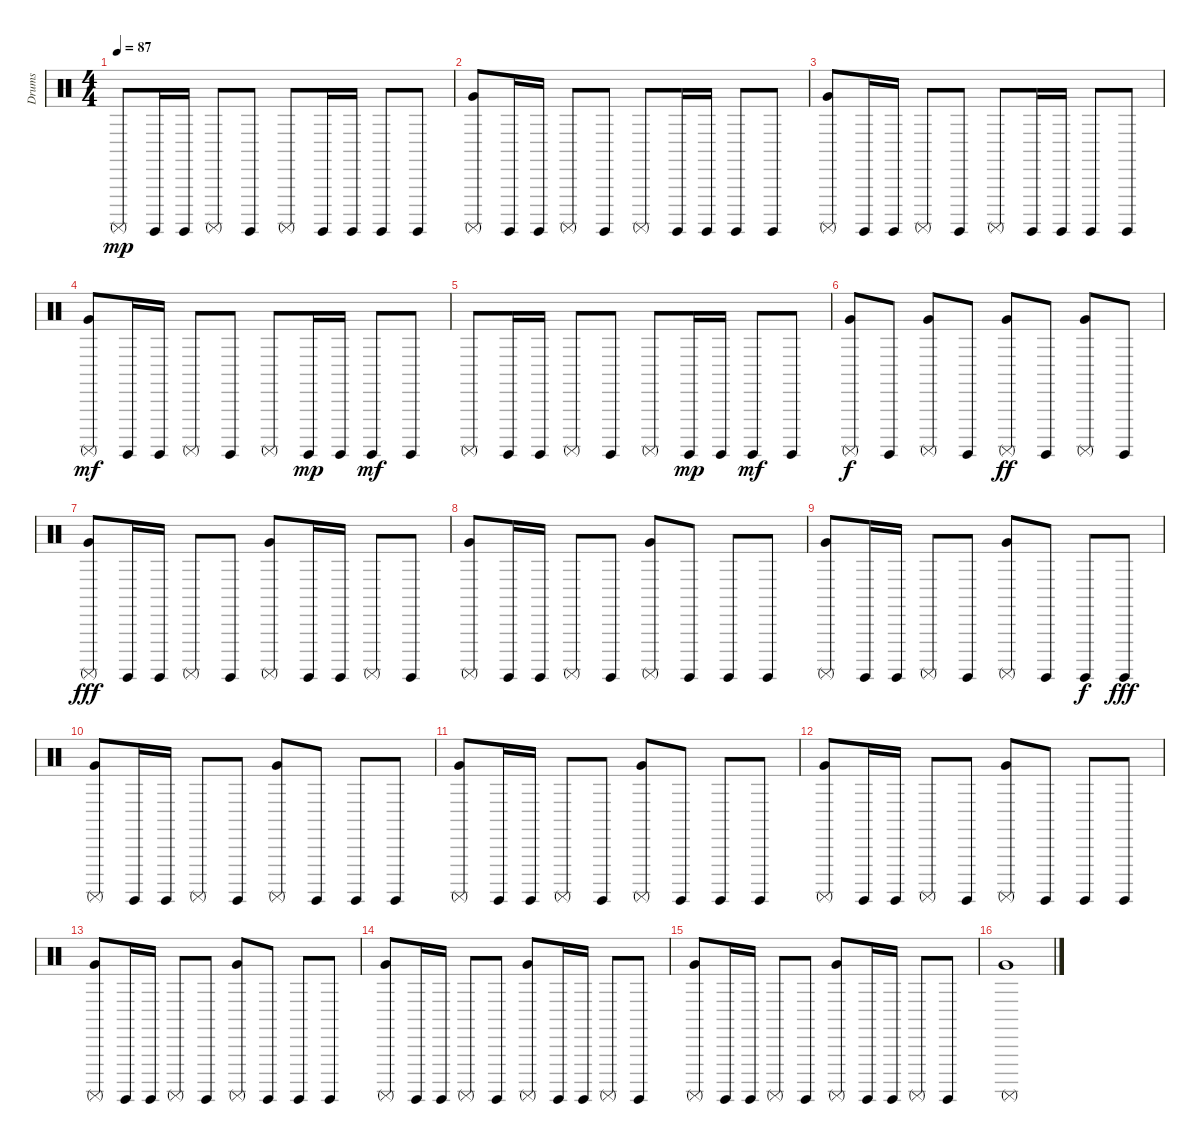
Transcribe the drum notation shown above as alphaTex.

\track ("Drums" "Drums") {instrument percussion}
\staff {score}
\articulation defaults
\ts (4 4)
\tempo 87
\clef neutral
\ks c "Surdo (mute)".8{dy mp} "Surdo (hit)".16 "Surdo (hit)".16 "Surdo (mute)".8 "Surdo (hit)".8 "Surdo (mute)".8 "Surdo (hit)".16 "Surdo (hit)".16 "Surdo (hit)".8 "Surdo (hit)".8
|
("Surdo (mute)" "Very Low Tom (hit)").8 "Surdo (hit)".16 "Surdo (hit)".16 "Surdo (mute)".8 "Surdo (hit)".8 "Surdo (mute)".8 "Surdo (hit)".16 "Surdo (hit)".16 "Surdo (hit)".8 "Surdo (hit)".8 |
("Surdo (mute)" "Very Low Tom (hit)").8 "Surdo (hit)".16 "Surdo (hit)".16 "Surdo (mute)".8 "Surdo (hit)".8 "Surdo (mute)".8 "Surdo (hit)".16 "Surdo (hit)".16 "Surdo (hit)".8 "Surdo (hit)".8 |
("Surdo (mute)" "Very Low Tom (hit)").8{dy mf} "Surdo (hit)".16 "Surdo (hit)".16 "Surdo (mute)".8 "Surdo (hit)".8 "Surdo (mute)".8 "Surdo (hit)".16{dy mp} "Surdo (hit)".16 "Surdo (hit)".8{dy mf} "Surdo (hit)".8 |
"Surdo (mute)".8 "Surdo (hit)".16 "Surdo (hit)".16 "Surdo (mute)".8 "Surdo (hit)".8 "Surdo (mute)".8 "Surdo (hit)".16{dy mp} "Surdo (hit)".16 "Surdo (hit)".8{dy mf} "Surdo (hit)".8 |
("Surdo (mute)" "Very Low Tom (hit)").8{dy f} "Surdo (hit)".8 ("Surdo (mute)" "Very Low Tom (hit)").8 "Surdo (hit)".8 ("Surdo (mute)" "Very Low Tom (hit)").8{dy ff} "Surdo (hit)".8 ("Surdo (mute)" "Very Low Tom (hit)").8 "Surdo (hit)".8 |
("Surdo (mute)" "Very Low Tom (hit)").8{dy fff} "Surdo (hit)".16 "Surdo (hit)".16 "Surdo (mute)".8 "Surdo (hit)".8 ("Surdo (mute)" "Very Low Tom (hit)").8 "Surdo (hit)".16 "Surdo (hit)".16 "Surdo (mute)".8 "Surdo (hit)".8 |
("Surdo (mute)" "Very Low Tom (hit)").8 "Surdo (hit)".16 "Surdo (hit)".16 "Surdo (mute)".8 "Surdo (hit)".8 ("Surdo (mute)" "Very Low Tom (hit)").8 "Surdo (hit)".8 "Surdo (hit)".8 "Surdo (hit)".8 |
("Surdo (mute)" "Very Low Tom (hit)").8 "Surdo (hit)".16 "Surdo (hit)".16 "Surdo (mute)".8 "Surdo (hit)".8 ("Surdo (mute)" "Very Low Tom (hit)").8 "Surdo (hit)".8 "Surdo (hit)".8{dy f} "Surdo (hit)".8{dy fff} |
("Surdo (mute)" "Very Low Tom (hit)").8 "Surdo (hit)".16 "Surdo (hit)".16 "Surdo (mute)".8 "Surdo (hit)".8 ("Surdo (mute)" "Very Low Tom (hit)").8 "Surdo (hit)".8 "Surdo (hit)".8 "Surdo (hit)".8 |
("Surdo (mute)" "Very Low Tom (hit)").8 "Surdo (hit)".16 "Surdo (hit)".16 "Surdo (mute)".8 "Surdo (hit)".8 ("Surdo (mute)" "Very Low Tom (hit)").8 "Surdo (hit)".8 "Surdo (hit)".8 "Surdo (hit)".8 |
("Surdo (mute)" "Very Low Tom (hit)").8 "Surdo (hit)".16 "Surdo (hit)".16 "Surdo (mute)".8 "Surdo (hit)".8 ("Surdo (mute)" "Very Low Tom (hit)").8 "Surdo (hit)".8 "Surdo (hit)".8 "Surdo (hit)".8 |
("Surdo (mute)" "Very Low Tom (hit)").8 "Surdo (hit)".16 "Surdo (hit)".16 "Surdo (mute)".8 "Surdo (hit)".8 ("Surdo (mute)" "Very Low Tom (hit)").8 "Surdo (hit)".8 "Surdo (hit)".8 "Surdo (hit)".8 |
("Surdo (mute)" "Very Low Tom (hit)").8 "Surdo (hit)".16 "Surdo (hit)".16 "Surdo (mute)".8 "Surdo (hit)".8 ("Surdo (mute)" "Very Low Tom (hit)").8 "Surdo (hit)".16 "Surdo (hit)".16 "Surdo (mute)".8 "Surdo (hit)".8 |
("Surdo (mute)" "Very Low Tom (hit)").8 "Surdo (hit)".16 "Surdo (hit)".16 "Surdo (mute)".8 "Surdo (hit)".8 ("Surdo (mute)" "Very Low Tom (hit)").8 "Surdo (hit)".16 "Surdo (hit)".16 "Surdo (mute)".8 "Surdo (hit)".8 |
("Surdo (mute)" "Very Low Tom (hit)").1
